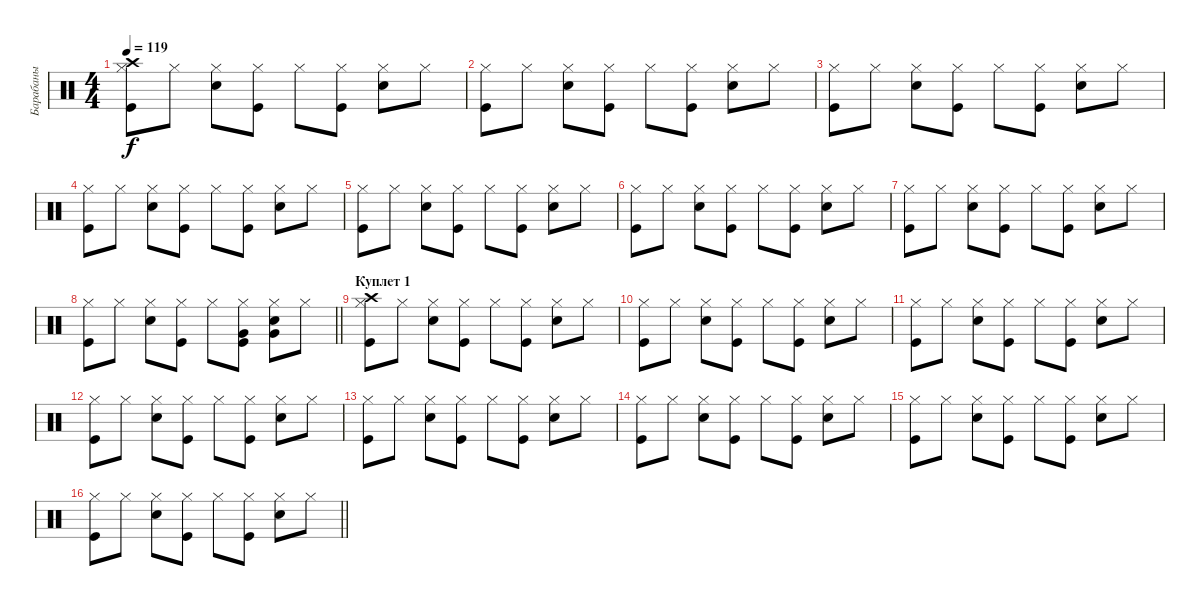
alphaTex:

\track ("Барабаны" "Барабаны") {instrument percussion}
\staff {score}
\articulation defaults
\ts (4 4)
\tempo 119
\clef neutral
\ks c
("Kick (hit)" "Hi-Hat (closed)" "Crash high (hit)").8{dy f} "Hi-Hat (closed)".8 ("Snare (hit) 2" "Hi-Hat (closed)").8 ("Kick (hit)" "Hi-Hat (closed)").8 "Hi-Hat (closed)".8 ("Kick (hit)" "Hi-Hat (closed)").8 ("Snare (hit) 2" "Hi-Hat (closed)").8 "Hi-Hat (closed)".8 |
("Kick (hit)" "Hi-Hat (closed)").8 "Hi-Hat (closed)".8 ("Snare (hit) 2" "Hi-Hat (closed)").8 ("Kick (hit)" "Hi-Hat (closed)").8 "Hi-Hat (closed)".8 ("Kick (hit)" "Hi-Hat (closed)").8 ("Snare (hit) 2" "Hi-Hat (closed)").8 "Hi-Hat (closed)".8 |
("Kick (hit)" "Hi-Hat (closed)").8 "Hi-Hat (closed)".8 ("Snare (hit) 2" "Hi-Hat (closed)").8 ("Kick (hit)" "Hi-Hat (closed)").8 "Hi-Hat (closed)".8 ("Kick (hit)" "Hi-Hat (closed)").8 ("Snare (hit) 2" "Hi-Hat (closed)").8 "Hi-Hat (closed)".8 |
("Kick (hit)" "Hi-Hat (closed)").8 "Hi-Hat (closed)".8 ("Snare (hit) 2" "Hi-Hat (closed)").8 ("Kick (hit)" "Hi-Hat (closed)").8 "Hi-Hat (closed)".8 ("Kick (hit)" "Hi-Hat (closed)").8 ("Snare (hit) 2" "Hi-Hat (closed)").8 "Hi-Hat (closed)".8 |
("Kick (hit)" "Hi-Hat (closed)").8 "Hi-Hat (closed)".8 ("Snare (hit) 2" "Hi-Hat (closed)").8 ("Kick (hit)" "Hi-Hat (closed)").8 "Hi-Hat (closed)".8 ("Kick (hit)" "Hi-Hat (closed)").8 ("Snare (hit) 2" "Hi-Hat (closed)").8 "Hi-Hat (closed)".8 |
("Kick (hit)" "Hi-Hat (closed)").8 "Hi-Hat (closed)".8 ("Snare (hit) 2" "Hi-Hat (closed)").8 ("Kick (hit)" "Hi-Hat (closed)").8 "Hi-Hat (closed)".8 ("Kick (hit)" "Hi-Hat (closed)").8 ("Snare (hit) 2" "Hi-Hat (closed)").8 "Hi-Hat (closed)".8 |
("Kick (hit)" "Hi-Hat (closed)").8 "Hi-Hat (closed)".8 ("Snare (hit) 2" "Hi-Hat (closed)").8 ("Kick (hit)" "Hi-Hat (closed)").8 "Hi-Hat (closed)".8 ("Kick (hit)" "Hi-Hat (closed)").8 ("Snare (hit) 2" "Hi-Hat (closed)").8 "Hi-Hat (closed)".8 |
\barLineRight lightlight
("Kick (hit)" "Hi-Hat (closed)").8 "Hi-Hat (closed)".8 ("Snare (hit) 2" "Hi-Hat (closed)").8 ("Kick (hit)" "Hi-Hat (closed)").8 "Hi-Hat (closed)".8 ("Kick (hit)" "Hi-Hat (closed)" "Very Low Tom (hit)").8 ("Snare (hit) 2" "Hi-Hat (closed)" "Very Low Tom (hit)").8 "Hi-Hat (closed)".8 |
\section ("" "Куплет 1")
("Kick (hit)" "Hi-Hat (closed)" "Crash high (hit)").8 "Hi-Hat (closed)".8 ("Snare (hit) 2" "Hi-Hat (closed)").8 ("Kick (hit)" "Hi-Hat (closed)").8 "Hi-Hat (closed)".8 ("Kick (hit)" "Hi-Hat (closed)").8 ("Snare (hit) 2" "Hi-Hat (closed)").8 "Hi-Hat (closed)".8 |
("Kick (hit)" "Hi-Hat (closed)").8 "Hi-Hat (closed)".8 ("Snare (hit) 2" "Hi-Hat (closed)").8 ("Kick (hit)" "Hi-Hat (closed)").8 "Hi-Hat (closed)".8 ("Kick (hit)" "Hi-Hat (closed)").8 ("Snare (hit) 2" "Hi-Hat (closed)").8 "Hi-Hat (closed)".8 |
("Kick (hit)" "Hi-Hat (closed)").8 "Hi-Hat (closed)".8 ("Snare (hit) 2" "Hi-Hat (closed)").8 ("Kick (hit)" "Hi-Hat (closed)").8 "Hi-Hat (closed)".8 ("Kick (hit)" "Hi-Hat (closed)").8 ("Snare (hit) 2" "Hi-Hat (closed)").8 "Hi-Hat (closed)".8 |
("Kick (hit)" "Hi-Hat (closed)").8 "Hi-Hat (closed)".8 ("Snare (hit) 2" "Hi-Hat (closed)").8 ("Kick (hit)" "Hi-Hat (closed)").8 "Hi-Hat (closed)".8 ("Kick (hit)" "Hi-Hat (closed)").8 ("Snare (hit) 2" "Hi-Hat (closed)").8 "Hi-Hat (closed)".8 |
("Kick (hit)" "Hi-Hat (closed)").8 "Hi-Hat (closed)".8 ("Snare (hit) 2" "Hi-Hat (closed)").8 ("Kick (hit)" "Hi-Hat (closed)").8 "Hi-Hat (closed)".8 ("Kick (hit)" "Hi-Hat (closed)").8 ("Snare (hit) 2" "Hi-Hat (closed)").8 "Hi-Hat (closed)".8 |
("Kick (hit)" "Hi-Hat (closed)").8 "Hi-Hat (closed)".8 ("Snare (hit) 2" "Hi-Hat (closed)").8 ("Kick (hit)" "Hi-Hat (closed)").8 "Hi-Hat (closed)".8 ("Kick (hit)" "Hi-Hat (closed)").8 ("Snare (hit) 2" "Hi-Hat (closed)").8 "Hi-Hat (closed)".8 |
("Kick (hit)" "Hi-Hat (closed)").8 "Hi-Hat (closed)".8 ("Snare (hit) 2" "Hi-Hat (closed)").8 ("Kick (hit)" "Hi-Hat (closed)").8 "Hi-Hat (closed)".8 ("Kick (hit)" "Hi-Hat (closed)").8 ("Snare (hit) 2" "Hi-Hat (closed)").8 "Hi-Hat (closed)".8 |
\barLineRight lightlight
("Kick (hit)" "Hi-Hat (closed)").8 "Hi-Hat (closed)".8 ("Snare (hit) 2" "Hi-Hat (closed)").8 ("Kick (hit)" "Hi-Hat (closed)").8 "Hi-Hat (closed)".8 ("Kick (hit)" "Hi-Hat (closed)").8 ("Snare (hit) 2" "Hi-Hat (closed)").8 "Hi-Hat (closed)".8
